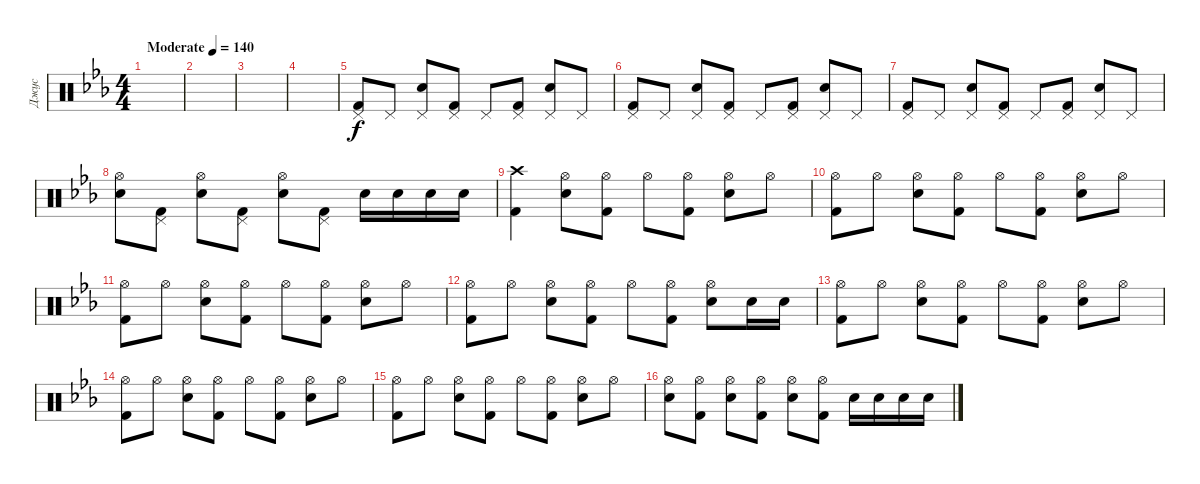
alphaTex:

\track ("Джус" "Джус") {instrument percussion}
\staff {score}
\articulation defaults
\ts (4 4)
\tempo (140 "Moderate")
\clef neutral
\ks eb
|
|
|
|
("Pedal Hi-Hat (hit)" "Kick (hit) 2").8 "Pedal Hi-Hat (hit)".8 ("Pedal Hi-Hat (hit)" "Electric Snare (hit)").8 ("Pedal Hi-Hat (hit)" "Kick (hit) 2").8 "Pedal Hi-Hat (hit)".8 ("Pedal Hi-Hat (hit)" "Kick (hit) 2").8 ("Pedal Hi-Hat (hit)" "Electric Snare (hit)").8 "Pedal Hi-Hat (hit)".8 |
("Pedal Hi-Hat (hit)" "Kick (hit) 2").8 "Pedal Hi-Hat (hit)".8 ("Pedal Hi-Hat (hit)" "Electric Snare (hit)").8 ("Pedal Hi-Hat (hit)" "Kick (hit) 2").8 "Pedal Hi-Hat (hit)".8 ("Pedal Hi-Hat (hit)" "Kick (hit) 2").8 ("Pedal Hi-Hat (hit)" "Electric Snare (hit)").8 "Pedal Hi-Hat (hit)".8 |
("Pedal Hi-Hat (hit)" "Kick (hit) 2").8 "Pedal Hi-Hat (hit)".8 ("Pedal Hi-Hat (hit)" "Electric Snare (hit)").8 ("Pedal Hi-Hat (hit)" "Kick (hit) 2").8 "Pedal Hi-Hat (hit)".8 ("Pedal Hi-Hat (hit)" "Kick (hit) 2").8 ("Pedal Hi-Hat (hit)" "Electric Snare (hit)").8 "Pedal Hi-Hat (hit)".8 |
("Hi-Hat (open)" "Electric Snare (hit)").8 ("Pedal Hi-Hat (hit)" "Kick (hit) 2").8 ("Hi-Hat (open)" "Electric Snare (hit)").8 ("Pedal Hi-Hat (hit)" "Kick (hit) 2").8 ("Hi-Hat (open)" "Electric Snare (hit)").8 ("Pedal Hi-Hat (hit)" "Kick (hit) 2").8 "Electric Snare (hit)".16 "Electric Snare (hit)".16 "Electric Snare (hit)".16 "Electric Snare (hit)".16 |
("Crash high (hit)" "Kick (hit) 2").4 ("Hi-Hat (open)" "Electric Snare (hit)").8 ("Hi-Hat (open)" "Kick (hit) 2").8 "Hi-Hat (open)".8 ("Hi-Hat (open)" "Kick (hit) 2").8 ("Hi-Hat (open)" "Electric Snare (hit)").8 "Hi-Hat (open)".8 |
("Hi-Hat (open)" "Kick (hit) 2").8 "Hi-Hat (open)".8 ("Hi-Hat (open)" "Electric Snare (hit)").8 ("Hi-Hat (open)" "Kick (hit) 2").8 "Hi-Hat (open)".8 ("Hi-Hat (open)" "Kick (hit) 2").8 ("Hi-Hat (open)" "Electric Snare (hit)").8 "Hi-Hat (open)".8 |
("Hi-Hat (open)" "Kick (hit) 2").8 "Hi-Hat (open)".8 ("Hi-Hat (open)" "Electric Snare (hit)").8 ("Hi-Hat (open)" "Kick (hit) 2").8 "Hi-Hat (open)".8 ("Hi-Hat (open)" "Kick (hit) 2").8 ("Hi-Hat (open)" "Electric Snare (hit)").8 "Hi-Hat (open)".8 |
("Hi-Hat (open)" "Kick (hit) 2").8 "Hi-Hat (open)".8 ("Hi-Hat (open)" "Electric Snare (hit)").8 ("Hi-Hat (open)" "Kick (hit) 2").8 "Hi-Hat (open)".8 ("Hi-Hat (open)" "Kick (hit) 2").8 ("Hi-Hat (open)" "Electric Snare (hit)").8 "Electric Snare (hit)".16 "Electric Snare (hit)".16 |
("Hi-Hat (open)" "Kick (hit) 2").8 "Hi-Hat (open)".8 ("Hi-Hat (open)" "Electric Snare (hit)").8 ("Hi-Hat (open)" "Kick (hit) 2").8 "Hi-Hat (open)".8 ("Hi-Hat (open)" "Kick (hit) 2").8 ("Hi-Hat (open)" "Electric Snare (hit)").8 "Hi-Hat (open)".8 |
("Hi-Hat (open)" "Kick (hit) 2").8 "Hi-Hat (open)".8 ("Hi-Hat (open)" "Electric Snare (hit)").8 ("Hi-Hat (open)" "Kick (hit) 2").8 "Hi-Hat (open)".8 ("Hi-Hat (open)" "Kick (hit) 2").8 ("Hi-Hat (open)" "Electric Snare (hit)").8 "Hi-Hat (open)".8 |
("Hi-Hat (open)" "Kick (hit) 2").8 "Hi-Hat (open)".8 ("Hi-Hat (open)" "Electric Snare (hit)").8 ("Hi-Hat (open)" "Kick (hit) 2").8 "Hi-Hat (open)".8 ("Hi-Hat (open)" "Kick (hit) 2").8 ("Hi-Hat (open)" "Electric Snare (hit)").8 "Hi-Hat (open)".8 |
("Hi-Hat (open)" "Electric Snare (hit)").8 ("Hi-Hat (open)" "Kick (hit) 2").8 ("Hi-Hat (open)" "Electric Snare (hit)").8 ("Hi-Hat (open)" "Kick (hit) 2").8 ("Hi-Hat (open)" "Electric Snare (hit)").8 ("Hi-Hat (open)" "Kick (hit) 2").8 "Electric Snare (hit)".16 "Electric Snare (hit)".16 "Electric Snare (hit)".16 "Electric Snare (hit)".16
